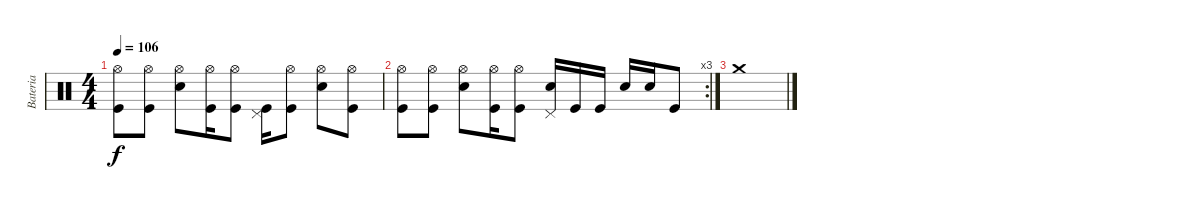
\track ("Bateria" "Bateria") {instrument percussion}
\staff {score}
\articulation defaults
\ts (4 4)
\tempo 106
\clef neutral
\ks c
("Hi-Hat (open)" "Kick (hit)").8{dy f} ("Hi-Hat (open)" "Kick (hit)").8 ("Hi-Hat (open)" "Snare (hit) 2").8 ("Hi-Hat (open)" "Kick (hit)").16 ("Hi-Hat (open)" "Kick (hit)").8 ("Pedal Hi-Hat (hit)" "Kick (hit)").16 ("Hi-Hat (open)" "Kick (hit)").8 ("Hi-Hat (open)" "Snare (hit) 2").8 ("Hi-Hat (open)" "Kick (hit)").8 |
\rc 3
("Hi-Hat (open)" "Kick (hit)").8 ("Hi-Hat (open)" "Kick (hit)").8 ("Hi-Hat (open)" "Snare (hit) 2").8 ("Hi-Hat (open)" "Kick (hit)").16 ("Hi-Hat (open)" "Kick (hit)").8 ("Pedal Hi-Hat (hit)" "Snare (hit) 2").16 "Kick (hit)".16 "Kick (hit)".16 "Snare (hit) 2".16 "Snare (hit) 2".16 "Kick (hit)".8 |
"Crash medium (hit)".1
